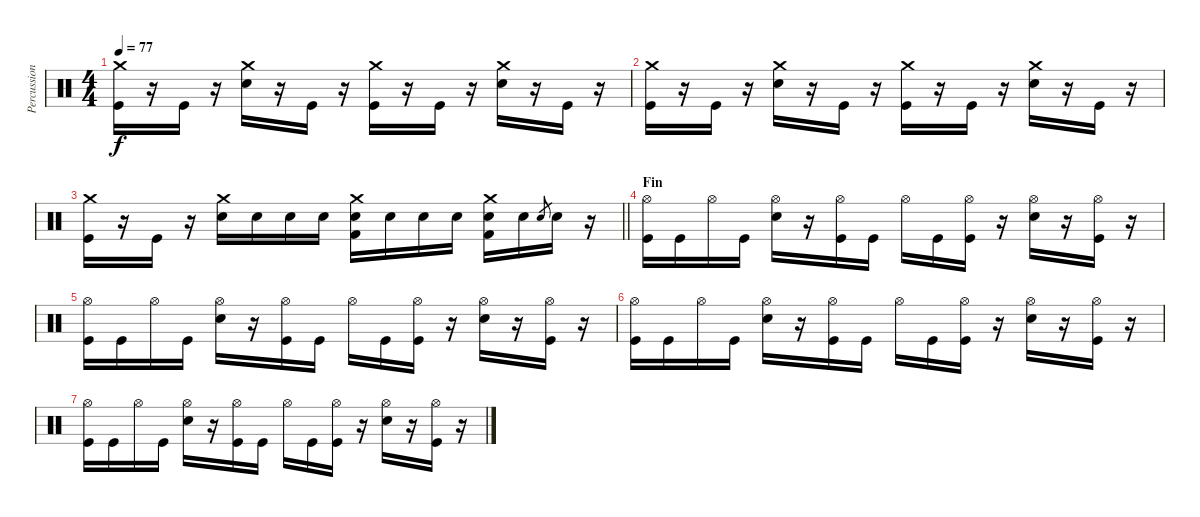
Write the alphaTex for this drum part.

\track ("Percussions" "Percussion") {instrument percussion}
\staff {score}
\articulation defaults
\ts (4 4)
\tempo 77
\clef neutral
\ks c
("Kick (hit)" "Crash medium (hit)").16{dy f} r.16 "Kick (hit)".16 r.16 ("Electric Snare (hit)" "Crash medium (hit)").16 r.16 "Kick (hit)".16 r.16 ("Kick (hit)" "Crash medium (hit)").16 r.16 "Kick (hit)".16 r.16 ("Electric Snare (hit)" "Crash medium (hit)").16 r.16 "Kick (hit)".16 r.16 |
("Kick (hit)" "Crash medium (hit)").16 r.16 "Kick (hit)".16 r.16 ("Electric Snare (hit)" "Crash medium (hit)").16 r.16 "Kick (hit)".16 r.16 ("Kick (hit)" "Crash medium (hit)").16 r.16 "Kick (hit)".16 r.16 ("Electric Snare (hit)" "Crash medium (hit)").16 r.16 "Kick (hit)".16 r.16 |
\barLineRight lightlight
("Kick (hit)" "Crash medium (hit)").16 r.16 "Kick (hit)".16 r.16 ("Electric Snare (hit)" "Crash medium (hit)").16 "Electric Snare (hit)".16 "Electric Snare (hit)".16 "Electric Snare (hit)".16 ("Electric Snare (hit)" "Kick (hit) 2" "Crash medium (hit)").16 "Electric Snare (hit)".16 "Electric Snare (hit)".16 "Electric Snare (hit)".16 ("Electric Snare (hit)" "Kick (hit) 2" "Crash medium (hit)").16 "Electric Snare (hit)".16 "Electric Snare (hit)".8{gr} "Electric Snare (hit)".16 r.16 |
\section ("" "Fin")
("Kick (hit)" "Hi-Hat (open)").16 "Kick (hit)".16 "Hi-Hat (open)".16 "Kick (hit)".16 ("Electric Snare (hit)" "Hi-Hat (open)").16 r.16 ("Kick (hit)" "Hi-Hat (open)").16 "Kick (hit)".16 "Hi-Hat (open)".16 "Kick (hit)".16 ("Kick (hit)" "Hi-Hat (open)").16 r.16 ("Electric Snare (hit)" "Hi-Hat (open)").16 r.16 ("Kick (hit)" "Hi-Hat (open)").16 r.16 |
("Kick (hit)" "Hi-Hat (open)").16 "Kick (hit)".16 "Hi-Hat (open)".16 "Kick (hit)".16 ("Electric Snare (hit)" "Hi-Hat (open)").16 r.16 ("Kick (hit)" "Hi-Hat (open)").16 "Kick (hit)".16 "Hi-Hat (open)".16 "Kick (hit)".16 ("Kick (hit)" "Hi-Hat (open)").16 r.16 ("Electric Snare (hit)" "Hi-Hat (open)").16 r.16 ("Kick (hit)" "Hi-Hat (open)").16 r.16 |
("Kick (hit)" "Hi-Hat (open)").16 "Kick (hit)".16 "Hi-Hat (open)".16 "Kick (hit)".16 ("Electric Snare (hit)" "Hi-Hat (open)").16 r.16 ("Kick (hit)" "Hi-Hat (open)").16 "Kick (hit)".16 "Hi-Hat (open)".16 "Kick (hit)".16 ("Kick (hit)" "Hi-Hat (open)").16 r.16 ("Electric Snare (hit)" "Hi-Hat (open)").16 r.16 ("Kick (hit)" "Hi-Hat (open)").16 r.16 |
("Kick (hit)" "Hi-Hat (open)").16 "Kick (hit)".16 "Hi-Hat (open)".16 "Kick (hit)".16 ("Electric Snare (hit)" "Hi-Hat (open)").16 r.16 ("Kick (hit)" "Hi-Hat (open)").16 "Kick (hit)".16 "Hi-Hat (open)".16 "Kick (hit)".16 ("Kick (hit)" "Hi-Hat (open)").16 r.16 ("Electric Snare (hit)" "Hi-Hat (open)").16 r.16 ("Kick (hit)" "Hi-Hat (open)").16 r.16
